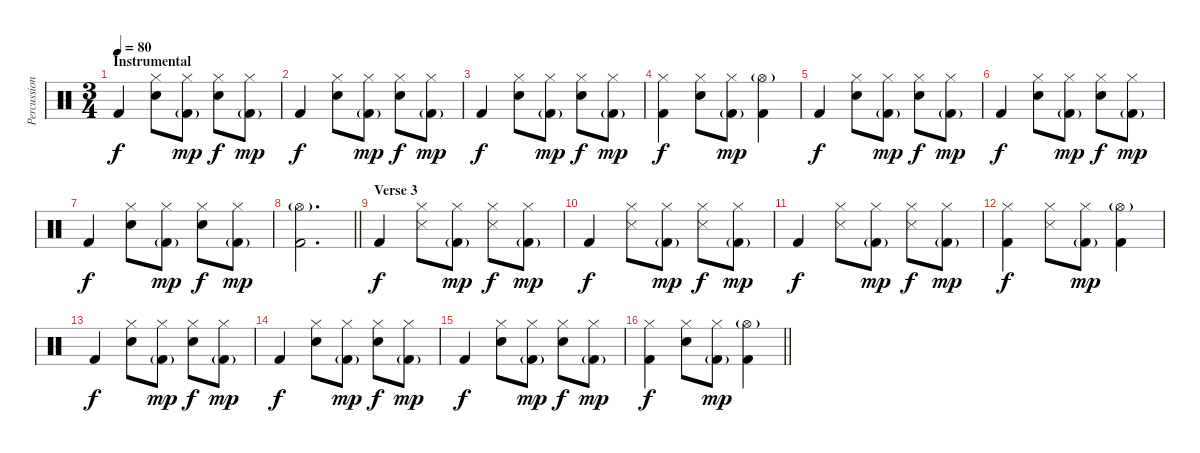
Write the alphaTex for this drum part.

\track ("Percussion" "Percussion") {instrument percussion}
\staff {score}
\articulation defaults
\ts (3 4)
\section ("" "Instrumental")
\tempo 80
\clef neutral
\ks c "Kick (hit) 2".4{dy f}
("Hi-Hat (closed)" "Snare (hit) 2").8 ("Hi-Hat (closed)" "Kick (hit) 2"{g}).8{dy mp} ("Hi-Hat (closed)" "Snare (hit) 2").8{dy f} ("Hi-Hat (closed)" "Kick (hit) 2"{g}).8{dy mp} |
"Kick (hit) 2".4{dy f} ("Hi-Hat (closed)" "Snare (hit) 2").8 ("Hi-Hat (closed)" "Kick (hit) 2"{g}).8{dy mp} ("Hi-Hat (closed)" "Snare (hit) 2").8{dy f} ("Hi-Hat (closed)" "Kick (hit) 2"{g}).8{dy mp} |
"Kick (hit) 2".4{dy f} ("Hi-Hat (closed)" "Snare (hit) 2").8 ("Hi-Hat (closed)" "Kick (hit) 2"{g}).8{dy mp} ("Hi-Hat (closed)" "Snare (hit) 2").8{dy f} ("Hi-Hat (closed)" "Kick (hit) 2"{g}).8{dy mp} |
("Hi-Hat (closed)" "Kick (hit) 2").4{dy f} ("Hi-Hat (closed)" "Snare (hit) 2").8 ("Hi-Hat (closed)" "Kick (hit) 2"{g}).8{dy mp} ("Hi-Hat (open)"{g} "Kick (hit) 2").4 |
"Kick (hit) 2".4{dy f} ("Hi-Hat (closed)" "Snare (hit) 2").8 ("Hi-Hat (closed)" "Kick (hit) 2"{g}).8{dy mp} ("Hi-Hat (closed)" "Snare (hit) 2").8{dy f} ("Hi-Hat (closed)" "Kick (hit) 2"{g}).8{dy mp} |
"Kick (hit) 2".4{dy f} ("Hi-Hat (closed)" "Snare (hit) 2").8 ("Hi-Hat (closed)" "Kick (hit) 2"{g}).8{dy mp} ("Hi-Hat (closed)" "Snare (hit) 2").8{dy f} ("Hi-Hat (closed)" "Kick (hit) 2"{g}).8{dy mp} |
"Kick (hit) 2".4{dy f} ("Hi-Hat (closed)" "Snare (hit) 2").8 ("Hi-Hat (closed)" "Kick (hit) 2"{g}).8{dy mp} ("Hi-Hat (closed)" "Snare (hit) 2").8{dy f} ("Hi-Hat (closed)" "Kick (hit) 2"{g}).8{dy mp} |
\barLineRight lightlight
("Hi-Hat (open)"{g} "Kick (hit) 2").2{d} |
\section ("" "Verse 3")
"Kick (hit) 2".4{dy f} ("Hi-Hat (closed)" "Snare (side stick) 3").8 ("Hi-Hat (closed)" "Kick (hit) 2"{g}).8{dy mp} ("Hi-Hat (closed)" "Snare (side stick) 3").8{dy f} ("Hi-Hat (closed)" "Kick (hit) 2"{g}).8{dy mp} |
"Kick (hit) 2".4{dy f} ("Hi-Hat (closed)" "Snare (side stick) 3").8 ("Hi-Hat (closed)" "Kick (hit) 2"{g}).8{dy mp} ("Hi-Hat (closed)" "Snare (side stick) 3").8{dy f} ("Hi-Hat (closed)" "Kick (hit) 2"{g}).8{dy mp} |
"Kick (hit) 2".4{dy f} ("Hi-Hat (closed)" "Snare (side stick) 3").8 ("Hi-Hat (closed)" "Kick (hit) 2"{g}).8{dy mp} ("Hi-Hat (closed)" "Snare (side stick) 3").8{dy f} ("Hi-Hat (closed)" "Kick (hit) 2"{g}).8{dy mp} |
("Hi-Hat (closed)" "Kick (hit) 2").4{dy f} ("Hi-Hat (closed)" "Snare (side stick) 3").8 ("Hi-Hat (closed)" "Kick (hit) 2"{g}).8{dy mp} ("Hi-Hat (open)"{g} "Kick (hit) 2").4 |
"Kick (hit) 2".4{dy f} ("Hi-Hat (closed)" "Snare (hit) 2").8 ("Hi-Hat (closed)" "Kick (hit) 2"{g}).8{dy mp} ("Hi-Hat (closed)" "Snare (hit) 2").8{dy f} ("Hi-Hat (closed)" "Kick (hit) 2"{g}).8{dy mp} |
"Kick (hit) 2".4{dy f} ("Hi-Hat (closed)" "Snare (hit) 2").8 ("Hi-Hat (closed)" "Kick (hit) 2"{g}).8{dy mp} ("Hi-Hat (closed)" "Snare (hit) 2").8{dy f} ("Hi-Hat (closed)" "Kick (hit) 2"{g}).8{dy mp} |
"Kick (hit) 2".4{dy f} ("Hi-Hat (closed)" "Snare (hit) 2").8 ("Hi-Hat (closed)" "Kick (hit) 2"{g}).8{dy mp} ("Hi-Hat (closed)" "Snare (hit) 2").8{dy f} ("Hi-Hat (closed)" "Kick (hit) 2"{g}).8{dy mp} |
\barLineRight lightlight
("Hi-Hat (closed)" "Kick (hit) 2").4{dy f} ("Hi-Hat (closed)" "Snare (hit) 2").8 ("Hi-Hat (closed)" "Kick (hit) 2"{g}).8{dy mp} ("Hi-Hat (open)"{g} "Kick (hit) 2").4
